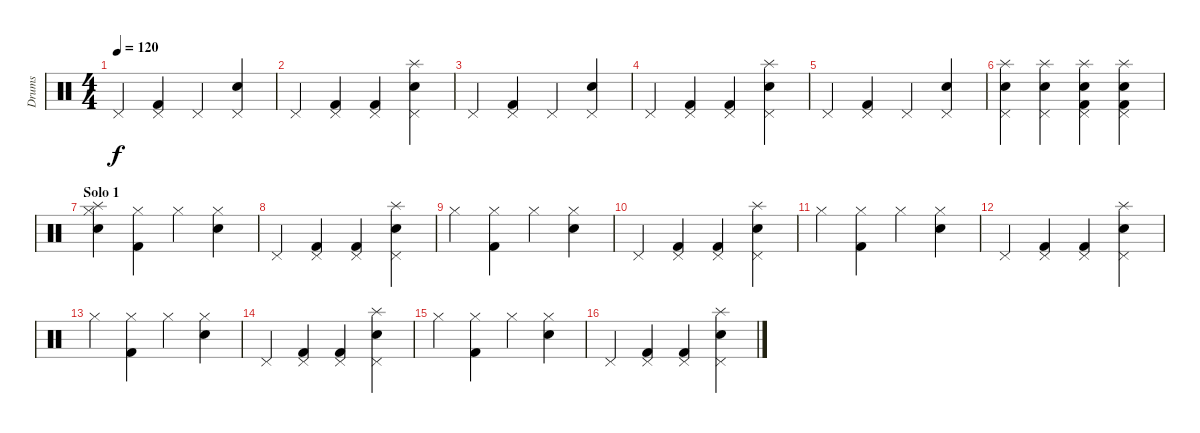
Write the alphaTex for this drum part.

\track ("Drums" "Drums") {instrument percussion}
\staff {score}
\articulation defaults
\ts (4 4)
\tempo 120
\clef neutral
\ks c "Pedal Hi-Hat (hit)".4{dy f}
("Pedal Hi-Hat (hit)" "Kick (hit) 2").4 "Pedal Hi-Hat (hit)".4 ("Pedal Hi-Hat (hit)" "Snare (hit) 2").4 |
"Pedal Hi-Hat (hit)".4 ("Pedal Hi-Hat (hit)" "Kick (hit) 2").4 ("Pedal Hi-Hat (hit)" "Kick (hit) 2").4 ("Pedal Hi-Hat (hit)" "Splash (hit)" "Snare (hit) 2").4 |
"Pedal Hi-Hat (hit)".4 ("Pedal Hi-Hat (hit)" "Kick (hit) 2").4 "Pedal Hi-Hat (hit)".4 ("Pedal Hi-Hat (hit)" "Snare (hit) 2").4 |
"Pedal Hi-Hat (hit)".4 ("Pedal Hi-Hat (hit)" "Kick (hit) 2").4 ("Pedal Hi-Hat (hit)" "Kick (hit) 2").4 ("Pedal Hi-Hat (hit)" "Splash (hit)" "Snare (hit) 2").4 |
"Pedal Hi-Hat (hit)".4 ("Pedal Hi-Hat (hit)" "Kick (hit) 2").4 "Pedal Hi-Hat (hit)".4 ("Pedal Hi-Hat (hit)" "Snare (hit) 2").4 |
("Pedal Hi-Hat (hit)" "Splash (hit)" "Snare (hit) 2").4 ("Pedal Hi-Hat (hit)" "Splash (hit)" "Snare (hit) 2").4 ("Pedal Hi-Hat (hit)" "Splash (hit)" "Snare (hit) 2" "Kick (hit) 2").4 ("Pedal Hi-Hat (hit)" "Splash (hit)" "Snare (hit) 2" "Kick (hit) 2").4 |
\section ("" "Solo 1")
("Hi-Hat (closed)" "Splash (hit)" "Snare (hit) 2").4 ("Hi-Hat (closed)" "Kick (hit) 2").4 "Hi-Hat (closed)".4 ("Hi-Hat (closed)" "Snare (hit) 2").4 |
"Pedal Hi-Hat (hit)".4 ("Pedal Hi-Hat (hit)" "Kick (hit) 2").4 ("Pedal Hi-Hat (hit)" "Kick (hit) 2").4 ("Pedal Hi-Hat (hit)" "Splash (hit)" "Snare (hit) 2").4 |
"Hi-Hat (closed)".4 ("Hi-Hat (closed)" "Kick (hit) 2").4 "Hi-Hat (closed)".4 ("Hi-Hat (closed)" "Snare (hit) 2").4 |
"Pedal Hi-Hat (hit)".4 ("Pedal Hi-Hat (hit)" "Kick (hit) 2").4 ("Pedal Hi-Hat (hit)" "Kick (hit) 2").4 ("Pedal Hi-Hat (hit)" "Splash (hit)" "Snare (hit) 2").4 |
"Hi-Hat (closed)".4 ("Hi-Hat (closed)" "Kick (hit) 2").4 "Hi-Hat (closed)".4 ("Hi-Hat (closed)" "Snare (hit) 2").4 |
"Pedal Hi-Hat (hit)".4 ("Pedal Hi-Hat (hit)" "Kick (hit) 2").4 ("Pedal Hi-Hat (hit)" "Kick (hit) 2").4 ("Pedal Hi-Hat (hit)" "Splash (hit)" "Snare (hit) 2").4 |
"Hi-Hat (closed)".4 ("Hi-Hat (closed)" "Kick (hit) 2").4 "Hi-Hat (closed)".4 ("Hi-Hat (closed)" "Snare (hit) 2").4 |
"Pedal Hi-Hat (hit)".4 ("Pedal Hi-Hat (hit)" "Kick (hit) 2").4 ("Pedal Hi-Hat (hit)" "Kick (hit) 2").4 ("Pedal Hi-Hat (hit)" "Splash (hit)" "Snare (hit) 2").4 |
"Hi-Hat (closed)".4 ("Hi-Hat (closed)" "Kick (hit) 2").4 "Hi-Hat (closed)".4 ("Hi-Hat (closed)" "Snare (hit) 2").4 |
"Pedal Hi-Hat (hit)".4 ("Pedal Hi-Hat (hit)" "Kick (hit) 2").4 ("Pedal Hi-Hat (hit)" "Kick (hit) 2").4 ("Pedal Hi-Hat (hit)" "Splash (hit)" "Snare (hit) 2").4
